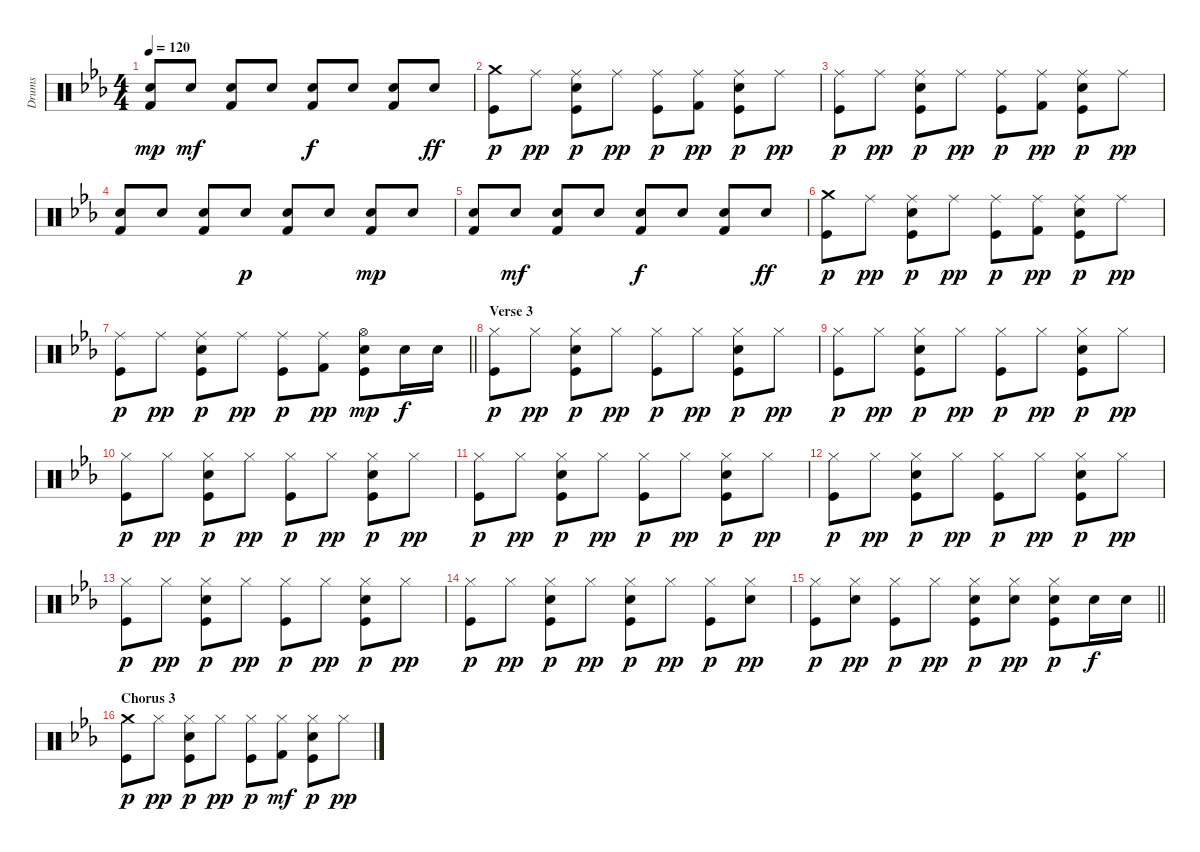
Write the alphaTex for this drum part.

\track ("Drums" "Drums") {instrument percussion}
\staff {score}
\articulation defaults
\ts (4 4)
\tempo 120
\clef neutral
\ks cminor
("Electric Snare (hit)" "Kick (hit) 2").8{dy mp} "Electric Snare (hit)".8{dy mf} ("Electric Snare (hit)" "Kick (hit) 2").8 "Electric Snare (hit)".8 ("Electric Snare (hit)" "Kick (hit) 2").8{dy f} "Electric Snare (hit)".8 ("Electric Snare (hit)" "Kick (hit) 2").8 "Electric Snare (hit)".8{dy ff} |
("Crash medium (hit)" "Kick (hit)").8{dy p} "Ride (middle)".8{dy pp} ("Ride (middle)" "Electric Snare (hit)" "Kick (hit)").8{dy p} "Ride (middle)".8{dy pp} ("Ride (middle)" "Kick (hit)").8{dy p} ("Kick (hit) 2" "Ride (middle)").8{dy pp} ("Ride (middle)" "Electric Snare (hit)" "Kick (hit)").8{dy p} "Ride (middle)".8{dy pp} |
("Ride (middle)" "Kick (hit)").8{dy p} "Ride (middle)".8{dy pp} ("Ride (middle)" "Electric Snare (hit)" "Kick (hit)").8{dy p} "Ride (middle)".8{dy pp} ("Ride (middle)" "Kick (hit)").8{dy p} ("Kick (hit) 2" "Ride (middle)").8{dy pp} ("Ride (middle)" "Electric Snare (hit)" "Kick (hit)").8{dy p} "Ride (middle)".8{dy pp} |
("Electric Snare (hit)" "Kick (hit) 2").8 "Electric Snare (hit)".8 ("Electric Snare (hit)" "Kick (hit) 2").8 "Electric Snare (hit)".8{dy p} ("Electric Snare (hit)" "Kick (hit) 2").8 "Electric Snare (hit)".8 ("Electric Snare (hit)" "Kick (hit) 2").8{dy mp} "Electric Snare (hit)".8 |
("Electric Snare (hit)" "Kick (hit) 2").8 "Electric Snare (hit)".8{dy mf} ("Electric Snare (hit)" "Kick (hit) 2").8 "Electric Snare (hit)".8 ("Electric Snare (hit)" "Kick (hit) 2").8{dy f} "Electric Snare (hit)".8 ("Electric Snare (hit)" "Kick (hit) 2").8 "Electric Snare (hit)".8{dy ff} |
("Crash medium (hit)" "Kick (hit)").8{dy p} "Ride (middle)".8{dy pp} ("Ride (middle)" "Electric Snare (hit)" "Kick (hit)").8{dy p} "Ride (middle)".8{dy pp} ("Ride (middle)" "Kick (hit)").8{dy p} ("Kick (hit) 2" "Ride (middle)").8{dy pp} ("Ride (middle)" "Electric Snare (hit)" "Kick (hit)").8{dy p} "Ride (middle)".8{dy pp} |
\barLineRight lightlight
("Ride (middle)" "Kick (hit)").8{dy p} "Ride (middle)".8{dy pp} ("Ride (middle)" "Electric Snare (hit)" "Kick (hit)").8{dy p} "Ride (middle)".8{dy pp} ("Ride (middle)" "Kick (hit)").8{dy p} ("Kick (hit) 2" "Ride (middle)").8{dy pp} ("Hi-Hat (open)" "Electric Snare (hit)" "Kick (hit)").8{dy mp} "Electric Snare (hit)".16{dy f} "Electric Snare (hit)".16 |
\section ("" "Verse 3")
("Hi-Hat (closed)" "Kick (hit)").8{dy p} "Hi-Hat (closed)".8{dy pp} ("Hi-Hat (closed)" "Electric Snare (hit)" "Kick (hit)").8{dy p} "Hi-Hat (closed)".8{dy pp} ("Hi-Hat (closed)" "Kick (hit)").8{dy p} "Hi-Hat (closed)".8{dy pp} ("Hi-Hat (closed)" "Electric Snare (hit)" "Kick (hit)").8{dy p} "Hi-Hat (closed)".8{dy pp} |
("Hi-Hat (closed)" "Kick (hit)").8{dy p} "Hi-Hat (closed)".8{dy pp} ("Hi-Hat (closed)" "Electric Snare (hit)" "Kick (hit)").8{dy p} "Hi-Hat (closed)".8{dy pp} ("Hi-Hat (closed)" "Kick (hit)").8{dy p} "Hi-Hat (closed)".8{dy pp} ("Hi-Hat (closed)" "Electric Snare (hit)" "Kick (hit)").8{dy p} "Hi-Hat (closed)".8{dy pp} |
("Hi-Hat (closed)" "Kick (hit)").8{dy p} "Hi-Hat (closed)".8{dy pp} ("Hi-Hat (closed)" "Electric Snare (hit)" "Kick (hit)").8{dy p} "Hi-Hat (closed)".8{dy pp} ("Hi-Hat (closed)" "Kick (hit)").8{dy p} "Hi-Hat (closed)".8{dy pp} ("Hi-Hat (closed)" "Electric Snare (hit)" "Kick (hit)").8{dy p} "Hi-Hat (closed)".8{dy pp} |
("Hi-Hat (closed)" "Kick (hit)").8{dy p} "Hi-Hat (closed)".8{dy pp} ("Hi-Hat (closed)" "Electric Snare (hit)" "Kick (hit)").8{dy p} "Hi-Hat (closed)".8{dy pp} ("Hi-Hat (closed)" "Kick (hit)").8{dy p} "Hi-Hat (closed)".8{dy pp} ("Hi-Hat (closed)" "Electric Snare (hit)" "Kick (hit)").8{dy p} "Hi-Hat (closed)".8{dy pp} |
("Hi-Hat (closed)" "Kick (hit)").8{dy p} "Hi-Hat (closed)".8{dy pp} ("Hi-Hat (closed)" "Electric Snare (hit)" "Kick (hit)").8{dy p} "Hi-Hat (closed)".8{dy pp} ("Hi-Hat (closed)" "Kick (hit)").8{dy p} "Hi-Hat (closed)".8{dy pp} ("Hi-Hat (closed)" "Electric Snare (hit)" "Kick (hit)").8{dy p} "Hi-Hat (closed)".8{dy pp} |
("Hi-Hat (closed)" "Kick (hit)").8{dy p} "Hi-Hat (closed)".8{dy pp} ("Hi-Hat (closed)" "Electric Snare (hit)" "Kick (hit)").8{dy p} "Hi-Hat (closed)".8{dy pp} ("Hi-Hat (closed)" "Kick (hit)").8{dy p} "Hi-Hat (closed)".8{dy pp} ("Hi-Hat (closed)" "Electric Snare (hit)" "Kick (hit)").8{dy p} "Hi-Hat (closed)".8{dy pp} |
("Hi-Hat (closed)" "Kick (hit)").8{dy p} "Hi-Hat (closed)".8{dy pp} ("Hi-Hat (closed)" "Electric Snare (hit)" "Kick (hit)").8{dy p} "Hi-Hat (closed)".8{dy pp} ("Hi-Hat (closed)" "Electric Snare (hit)" "Kick (hit)").8{dy p} "Hi-Hat (closed)".8{dy pp} ("Hi-Hat (closed)" "Kick (hit)").8{dy p} ("Hi-Hat (closed)" "Electric Snare (hit)").8{dy pp} |
\barLineRight lightlight
("Hi-Hat (closed)" "Kick (hit)").8{dy p} ("Hi-Hat (closed)" "Electric Snare (hit)").8{dy pp} ("Hi-Hat (closed)" "Kick (hit)").8{dy p} "Hi-Hat (closed)".8{dy pp} ("Hi-Hat (closed)" "Electric Snare (hit)" "Kick (hit)").8{dy p} ("Hi-Hat (closed)" "Electric Snare (hit)").8{dy pp} ("Hi-Hat (closed)" "Electric Snare (hit)" "Kick (hit)").8{dy p} "Electric Snare (hit)".16{dy f} "Electric Snare (hit)".16 |
\section ("" "Chorus 3")
("Crash medium (hit)" "Kick (hit)").8{dy p} "Hi-Hat (closed)".8{dy pp} ("Hi-Hat (closed)" "Electric Snare (hit)" "Kick (hit)").8{dy p} "Hi-Hat (closed)".8{dy pp} ("Hi-Hat (closed)" "Kick (hit)").8{dy p} ("Hi-Hat (closed)" "Kick (hit) 2").8{dy mf} ("Hi-Hat (closed)" "Electric Snare (hit)" "Kick (hit)").8{dy p} "Hi-Hat (closed)".8{dy pp}
